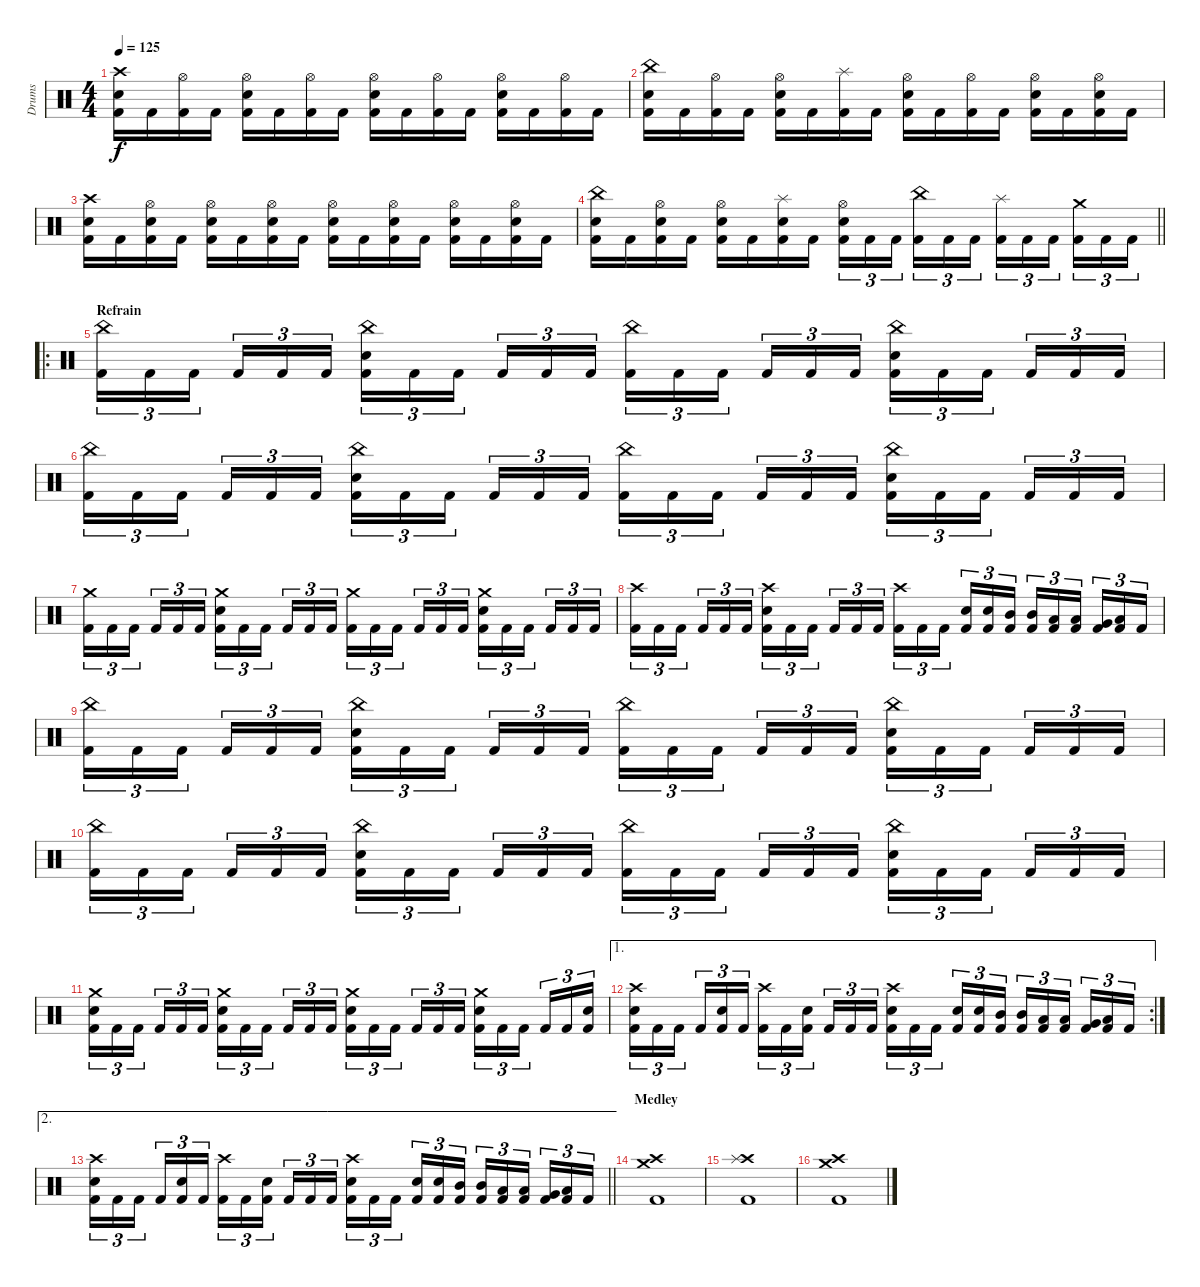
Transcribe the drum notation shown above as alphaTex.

\track ("Drums" "Drums") {instrument percussion}
\staff {score}
\articulation defaults
\ts (4 4)
\tempo 125
\clef neutral
\ks c
("Crash high (hit)" "Electric Snare (hit)" "Kick (hit) 2").16{dy f} "Kick (hit) 2".16 ("Hi-Hat (open)" "Kick (hit) 2").16 "Kick (hit) 2".16 ("Hi-Hat (open)" "Electric Snare (hit)" "Kick (hit) 2").16 "Kick (hit) 2".16 ("Hi-Hat (open)" "Kick (hit) 2").16 "Kick (hit) 2".16 ("Hi-Hat (open)" "Electric Snare (hit)" "Kick (hit) 2").16 "Kick (hit) 2".16 ("Hi-Hat (open)" "Kick (hit) 2").16 "Kick (hit) 2".16 ("Hi-Hat (open)" "Electric Snare (hit)" "Kick (hit) 2").16 "Kick (hit) 2".16 ("Hi-Hat (open)" "Kick (hit) 2").16 "Kick (hit) 2".16 |
("China (hit)" "Electric Snare (hit)" "Kick (hit) 2").16 "Kick (hit) 2".16 ("Hi-Hat (open)" "Kick (hit) 2").16 "Kick (hit) 2".16 ("Hi-Hat (open)" "Electric Snare (hit)" "Kick (hit) 2").16 "Kick (hit) 2".16 ("Splash (hit)" "Kick (hit) 2").16 "Kick (hit) 2".16 ("Hi-Hat (open)" "Electric Snare (hit)" "Kick (hit) 2").16 "Kick (hit) 2".16 ("Hi-Hat (open)" "Kick (hit) 2").16 "Kick (hit) 2".16 ("Hi-Hat (open)" "Electric Snare (hit)" "Kick (hit) 2").16 "Kick (hit) 2".16 ("Hi-Hat (open)" "Electric Snare (hit)" "Kick (hit) 2").16 "Kick (hit) 2".16 |
("Crash high (hit)" "Electric Snare (hit)" "Kick (hit) 2").16 "Kick (hit) 2".16 ("Hi-Hat (open)" "Electric Snare (hit)" "Kick (hit) 2").16 "Kick (hit) 2".16 ("Hi-Hat (open)" "Electric Snare (hit)" "Kick (hit) 2").16 "Kick (hit) 2".16 ("Hi-Hat (open)" "Electric Snare (hit)" "Kick (hit) 2").16 "Kick (hit) 2".16 ("Hi-Hat (open)" "Electric Snare (hit)" "Kick (hit) 2").16 "Kick (hit) 2".16 ("Hi-Hat (open)" "Electric Snare (hit)" "Kick (hit) 2").16 "Kick (hit) 2".16 ("Hi-Hat (open)" "Electric Snare (hit)" "Kick (hit) 2").16 "Kick (hit) 2".16 ("Hi-Hat (open)" "Electric Snare (hit)" "Kick (hit) 2").16 "Kick (hit) 2".16 |
\barLineRight lightlight
("China (hit)" "Electric Snare (hit)" "Kick (hit) 2").16 "Kick (hit) 2".16 ("Hi-Hat (open)" "Electric Snare (hit)" "Kick (hit) 2").16 "Kick (hit) 2".16 ("Hi-Hat (open)" "Electric Snare (hit)" "Kick (hit) 2").16 "Kick (hit) 2".16 ("Splash (hit)" "Electric Snare (hit)" "Kick (hit) 2").16 "Kick (hit) 2".16 ("Hi-Hat (open)" "Electric Snare (hit)" "Kick (hit) 2").16{tu (3 2)} "Kick (hit) 2".16{tu (3 2)} "Kick (hit) 2".16{tu (3 2) beam splitsecondary} ("China (hit)" "Kick (hit) 2").16{tu (3 2)} "Kick (hit) 2".16{tu (3 2)} "Kick (hit) 2".16{tu (3 2)} ("Splash (hit)" "Kick (hit) 2").16{tu (3 2)} "Kick (hit) 2".16{tu (3 2)} "Kick (hit) 2".16{tu (3 2) beam splitsecondary} ("Crash medium (hit)" "Kick (hit) 2").16{tu (3 2)} "Kick (hit) 2".16{tu (3 2)} "Kick (hit) 2".16{tu (3 2)} |
\ro
\section ("" "Refrain")
("China (hit)" "Kick (hit) 2").16{tu (3 2)} "Kick (hit) 2".16{tu (3 2)} "Kick (hit) 2".16{tu (3 2) beam splitsecondary} "Kick (hit) 2".16{tu (3 2)} "Kick (hit) 2".16{tu (3 2)} "Kick (hit) 2".16{tu (3 2)} ("China (hit)" "Electric Snare (hit)" "Kick (hit) 2").16{tu (3 2)} "Kick (hit) 2".16{tu (3 2)} "Kick (hit) 2".16{tu (3 2) beam splitsecondary} "Kick (hit) 2".16{tu (3 2)} "Kick (hit) 2".16{tu (3 2)} "Kick (hit) 2".16{tu (3 2)} ("China (hit)" "Kick (hit) 2").16{tu (3 2)} "Kick (hit) 2".16{tu (3 2)} "Kick (hit) 2".16{tu (3 2) beam splitsecondary} "Kick (hit) 2".16{tu (3 2)} "Kick (hit) 2".16{tu (3 2)} "Kick (hit) 2".16{tu (3 2)} ("China (hit)" "Electric Snare (hit)" "Kick (hit) 2").16{tu (3 2)} "Kick (hit) 2".16{tu (3 2)} "Kick (hit) 2".16{tu (3 2) beam splitsecondary} "Kick (hit) 2".16{tu (3 2)} "Kick (hit) 2".16{tu (3 2)} "Kick (hit) 2".16{tu (3 2)} |
("China (hit)" "Kick (hit) 2").16{tu (3 2)} "Kick (hit) 2".16{tu (3 2)} "Kick (hit) 2".16{tu (3 2) beam splitsecondary} "Kick (hit) 2".16{tu (3 2)} "Kick (hit) 2".16{tu (3 2)} "Kick (hit) 2".16{tu (3 2)} ("China (hit)" "Electric Snare (hit)" "Kick (hit) 2").16{tu (3 2)} "Kick (hit) 2".16{tu (3 2)} "Kick (hit) 2".16{tu (3 2) beam splitsecondary} "Kick (hit) 2".16{tu (3 2)} "Kick (hit) 2".16{tu (3 2)} "Kick (hit) 2".16{tu (3 2)} ("China (hit)" "Kick (hit) 2").16{tu (3 2)} "Kick (hit) 2".16{tu (3 2)} "Kick (hit) 2".16{tu (3 2) beam splitsecondary} "Kick (hit) 2".16{tu (3 2)} "Kick (hit) 2".16{tu (3 2)} "Kick (hit) 2".16{tu (3 2)} ("China (hit)" "Electric Snare (hit)" "Kick (hit) 2").16{tu (3 2)} "Kick (hit) 2".16{tu (3 2)} "Kick (hit) 2".16{tu (3 2) beam splitsecondary} "Kick (hit) 2".16{tu (3 2)} "Kick (hit) 2".16{tu (3 2)} "Kick (hit) 2".16{tu (3 2)} |
("Crash medium (hit)" "Kick (hit) 2").16{tu (3 2)} "Kick (hit) 2".16{tu (3 2)} "Kick (hit) 2".16{tu (3 2) beam splitsecondary} "Kick (hit) 2".16{tu (3 2)} "Kick (hit) 2".16{tu (3 2)} "Kick (hit) 2".16{tu (3 2)} ("Crash medium (hit)" "Electric Snare (hit)" "Kick (hit) 2").16{tu (3 2)} "Kick (hit) 2".16{tu (3 2)} "Kick (hit) 2".16{tu (3 2) beam splitsecondary} "Kick (hit) 2".16{tu (3 2)} "Kick (hit) 2".16{tu (3 2)} "Kick (hit) 2".16{tu (3 2)} ("Crash medium (hit)" "Kick (hit) 2").16{tu (3 2)} "Kick (hit) 2".16{tu (3 2)} "Kick (hit) 2".16{tu (3 2) beam splitsecondary} "Kick (hit) 2".16{tu (3 2)} "Kick (hit) 2".16{tu (3 2)} "Kick (hit) 2".16{tu (3 2)} ("Crash medium (hit)" "Electric Snare (hit)" "Kick (hit) 2").16{tu (3 2)} "Kick (hit) 2".16{tu (3 2)} "Kick (hit) 2".16{tu (3 2) beam splitsecondary} "Kick (hit) 2".16{tu (3 2)} "Kick (hit) 2".16{tu (3 2)} "Kick (hit) 2".16{tu (3 2)} |
("Crash high (hit)" "Kick (hit) 2").16{tu (3 2)} "Kick (hit) 2".16{tu (3 2)} "Kick (hit) 2".16{tu (3 2) beam splitsecondary} "Kick (hit) 2".16{tu (3 2)} "Kick (hit) 2".16{tu (3 2)} "Kick (hit) 2".16{tu (3 2)} ("Crash high (hit)" "Electric Snare (hit)" "Kick (hit) 2").16{tu (3 2)} "Kick (hit) 2".16{tu (3 2)} "Kick (hit) 2".16{tu (3 2) beam splitsecondary} "Kick (hit) 2".16{tu (3 2)} "Kick (hit) 2".16{tu (3 2)} "Kick (hit) 2".16{tu (3 2)} ("Crash high (hit)" "Kick (hit) 2").16{tu (3 2)} "Kick (hit) 2".16{tu (3 2)} "Kick (hit) 2".16{tu (3 2) beam splitsecondary} ("Electric Snare (hit)" "Kick (hit) 2").16{tu (3 2)} ("Electric Snare (hit)" "Kick (hit) 2").16{tu (3 2)} ("Mid Tom (hit)" "Kick (hit) 2").16{tu (3 2)} ("Mid Tom (hit)" "Kick (hit) 2").16{tu (3 2)} ("Low Tom (hit)" "Kick (hit) 2").16{tu (3 2)} ("Low Tom (hit)" "Kick (hit) 2").16{tu (3 2) beam splitsecondary} ("Very Low Tom (hit)" "Kick (hit) 2").16{tu (3 2)} ("Low Floor Tom (hit)" "Kick (hit) 2").16{tu (3 2)} "Kick (hit) 2".16{tu (3 2)} |
("China (hit)" "Kick (hit) 2").16{tu (3 2)} "Kick (hit) 2".16{tu (3 2)} "Kick (hit) 2".16{tu (3 2) beam splitsecondary} "Kick (hit) 2".16{tu (3 2)} "Kick (hit) 2".16{tu (3 2)} "Kick (hit) 2".16{tu (3 2)} ("China (hit)" "Electric Snare (hit)" "Kick (hit) 2").16{tu (3 2)} "Kick (hit) 2".16{tu (3 2)} "Kick (hit) 2".16{tu (3 2) beam splitsecondary} "Kick (hit) 2".16{tu (3 2)} "Kick (hit) 2".16{tu (3 2)} "Kick (hit) 2".16{tu (3 2)} ("China (hit)" "Kick (hit) 2").16{tu (3 2)} "Kick (hit) 2".16{tu (3 2)} "Kick (hit) 2".16{tu (3 2) beam splitsecondary} "Kick (hit) 2".16{tu (3 2)} "Kick (hit) 2".16{tu (3 2)} "Kick (hit) 2".16{tu (3 2)} ("China (hit)" "Electric Snare (hit)" "Kick (hit) 2").16{tu (3 2)} "Kick (hit) 2".16{tu (3 2)} "Kick (hit) 2".16{tu (3 2) beam splitsecondary} "Kick (hit) 2".16{tu (3 2)} "Kick (hit) 2".16{tu (3 2)} "Kick (hit) 2".16{tu (3 2)} |
("China (hit)" "Kick (hit) 2").16{tu (3 2)} "Kick (hit) 2".16{tu (3 2)} "Kick (hit) 2".16{tu (3 2) beam splitsecondary} "Kick (hit) 2".16{tu (3 2)} "Kick (hit) 2".16{tu (3 2)} "Kick (hit) 2".16{tu (3 2)} ("China (hit)" "Electric Snare (hit)" "Kick (hit) 2").16{tu (3 2)} "Kick (hit) 2".16{tu (3 2)} "Kick (hit) 2".16{tu (3 2) beam splitsecondary} "Kick (hit) 2".16{tu (3 2)} "Kick (hit) 2".16{tu (3 2)} "Kick (hit) 2".16{tu (3 2)} ("China (hit)" "Kick (hit) 2").16{tu (3 2)} "Kick (hit) 2".16{tu (3 2)} "Kick (hit) 2".16{tu (3 2) beam splitsecondary} "Kick (hit) 2".16{tu (3 2)} "Kick (hit) 2".16{tu (3 2)} "Kick (hit) 2".16{tu (3 2)} ("China (hit)" "Electric Snare (hit)" "Kick (hit) 2").16{tu (3 2)} "Kick (hit) 2".16{tu (3 2)} "Kick (hit) 2".16{tu (3 2) beam splitsecondary} "Kick (hit) 2".16{tu (3 2)} "Kick (hit) 2".16{tu (3 2)} "Kick (hit) 2".16{tu (3 2)} |
("Crash medium (hit)" "Electric Snare (hit)" "Kick (hit) 2").16{tu (3 2)} "Kick (hit) 2".16{tu (3 2)} "Kick (hit) 2".16{tu (3 2) beam splitsecondary} "Kick (hit) 2".16{tu (3 2)} "Kick (hit) 2".16{tu (3 2)} "Kick (hit) 2".16{tu (3 2)} ("Crash medium (hit)" "Electric Snare (hit)" "Kick (hit) 2").16{tu (3 2)} "Kick (hit) 2".16{tu (3 2)} "Kick (hit) 2".16{tu (3 2) beam splitsecondary} "Kick (hit) 2".16{tu (3 2)} "Kick (hit) 2".16{tu (3 2)} "Kick (hit) 2".16{tu (3 2)} ("Crash medium (hit)" "Electric Snare (hit)" "Kick (hit) 2").16{tu (3 2)} "Kick (hit) 2".16{tu (3 2)} "Kick (hit) 2".16{tu (3 2) beam splitsecondary} "Kick (hit) 2".16{tu (3 2)} "Kick (hit) 2".16{tu (3 2)} "Kick (hit) 2".16{tu (3 2)} ("Crash medium (hit)" "Electric Snare (hit)" "Kick (hit) 2").16{tu (3 2)} "Kick (hit) 2".16{tu (3 2)} "Kick (hit) 2".16{tu (3 2) beam splitsecondary} "Kick (hit) 2".16{tu (3 2)} "Kick (hit) 2".16{tu (3 2)} ("Electric Snare (hit)" "Kick (hit) 2").16{tu (3 2)} |
\ae 1
\rc 2
("Crash high (hit)" "Electric Snare (hit)" "Kick (hit) 2").16{tu (3 2)} "Kick (hit) 2".16{tu (3 2)} "Kick (hit) 2".16{tu (3 2) beam splitsecondary} "Kick (hit) 2".16{tu (3 2)} ("Electric Snare (hit)" "Kick (hit) 2").16{tu (3 2)} "Kick (hit) 2".16{tu (3 2)} ("Crash high (hit)" "Kick (hit) 2").16{tu (3 2)} "Kick (hit) 2".16{tu (3 2)} ("Electric Snare (hit)" "Kick (hit) 2").16{tu (3 2) beam splitsecondary} "Kick (hit) 2".16{tu (3 2)} "Kick (hit) 2".16{tu (3 2)} "Kick (hit) 2".16{tu (3 2)} ("Crash high (hit)" "Electric Snare (hit)" "Kick (hit) 2").16{tu (3 2)} "Kick (hit) 2".16{tu (3 2)} "Kick (hit) 2".16{tu (3 2) beam splitsecondary} ("Electric Snare (hit)" "Kick (hit) 2").16{tu (3 2)} ("Electric Snare (hit)" "Kick (hit) 2").16{tu (3 2)} ("Mid Tom (hit)" "Kick (hit) 2").16{tu (3 2)} ("Mid Tom (hit)" "Kick (hit) 2").16{tu (3 2)} ("Low Tom (hit)" "Kick (hit) 2").16{tu (3 2)} ("Low Tom (hit)" "Kick (hit) 2").16{tu (3 2) beam splitsecondary} ("Very Low Tom (hit)" "Kick (hit) 2").16{tu (3 2)} ("Low Floor Tom (hit)" "Kick (hit) 2").16{tu (3 2)} "Kick (hit) 2".16{tu (3 2)} |
\ae 2
\barLineRight lightlight
("Crash high (hit)" "Electric Snare (hit)" "Kick (hit) 2").16{tu (3 2)} "Kick (hit) 2".16{tu (3 2)} "Kick (hit) 2".16{tu (3 2) beam splitsecondary} "Kick (hit) 2".16{tu (3 2)} ("Electric Snare (hit)" "Kick (hit) 2").16{tu (3 2)} "Kick (hit) 2".16{tu (3 2)} ("Crash high (hit)" "Kick (hit) 2").16{tu (3 2)} "Kick (hit) 2".16{tu (3 2)} ("Electric Snare (hit)" "Kick (hit) 2").16{tu (3 2) beam splitsecondary} "Kick (hit) 2".16{tu (3 2)} "Kick (hit) 2".16{tu (3 2)} "Kick (hit) 2".16{tu (3 2)} ("Crash high (hit)" "Electric Snare (hit)" "Kick (hit) 2").16{tu (3 2)} "Kick (hit) 2".16{tu (3 2)} "Kick (hit) 2".16{tu (3 2) beam splitsecondary} ("Electric Snare (hit)" "Kick (hit) 2").16{tu (3 2)} ("Electric Snare (hit)" "Kick (hit) 2").16{tu (3 2)} ("Mid Tom (hit)" "Kick (hit) 2").16{tu (3 2)} ("Mid Tom (hit)" "Kick (hit) 2").16{tu (3 2)} ("Low Tom (hit)" "Kick (hit) 2").16{tu (3 2)} ("Low Tom (hit)" "Kick (hit) 2").16{tu (3 2) beam splitsecondary} ("Very Low Tom (hit)" "Kick (hit) 2").16{tu (3 2)} ("Low Floor Tom (hit)" "Kick (hit) 2").16{tu (3 2)} "Kick (hit) 2".16{tu (3 2)} |
\section ("" "Medley")
("Crash medium (hit)" "Crash high (hit)" "Kick (hit) 2").1 |
("Crash high (hit)" "Splash (hit)" "Kick (hit) 2").1 |
("Crash medium (hit)" "Crash high (hit)" "Kick (hit) 2").1
